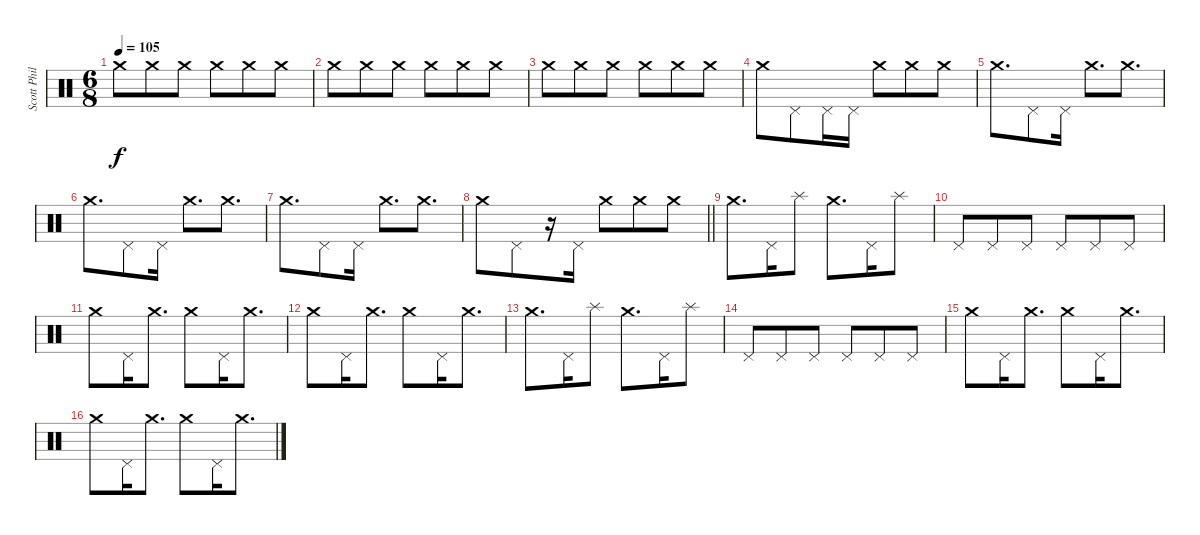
\track ("Scott Phillips (Drums)" "Scott Phil") {instrument percussion}
\staff {score}
\articulation defaults
\ts (6 8)
\tempo 105
\clef neutral
\ks c "Crash medium (hit)".8{dy f} "Crash medium (hit)".8 "Crash medium (hit)".8 "Crash medium (hit)".8 "Crash medium (hit)".8 "Crash medium (hit)".8
|
"Crash medium (hit)".8 "Crash medium (hit)".8 "Crash medium (hit)".8 "Crash medium (hit)".8 "Crash medium (hit)".8 "Crash medium (hit)".8 |
"Crash medium (hit)".8 "Crash medium (hit)".8 "Crash medium (hit)".8 "Crash medium (hit)".8 "Crash medium (hit)".8 "Crash medium (hit)".8 |
"Crash medium (hit)".8 "Pedal Hi-Hat (hit)".8 "Pedal Hi-Hat (hit)".16 "Pedal Hi-Hat (hit)".16 "Crash medium (hit)".8 "Crash medium (hit)".8 "Crash medium (hit)".8 |
"Crash medium (hit)".8{d} "Pedal Hi-Hat (hit)".8 "Pedal Hi-Hat (hit)".16 "Crash medium (hit)".8{d} "Crash medium (hit)".8{d} |
"Crash medium (hit)".8{d} "Pedal Hi-Hat (hit)".8 "Pedal Hi-Hat (hit)".16 "Crash medium (hit)".8{d} "Crash medium (hit)".8{d} |
"Crash medium (hit)".8{d} "Pedal Hi-Hat (hit)".8 "Pedal Hi-Hat (hit)".16 "Crash medium (hit)".8{d} "Crash medium (hit)".8{d} |
\barLineRight lightlight "Crash medium (hit)".8 "Pedal Hi-Hat (hit)".8
r.16 "Pedal Hi-Hat (hit)".16 "Crash medium (hit)".8 "Crash medium (hit)".8 "Crash medium (hit)".8 |
"Crash medium (hit)".8{d} "Pedal Hi-Hat (hit)".16 "Splash (hit)".8 "Crash medium (hit)".8{d} "Pedal Hi-Hat (hit)".16 "Splash (hit)".8 |
"Pedal Hi-Hat (hit)".8 "Pedal Hi-Hat (hit)".8 "Pedal Hi-Hat (hit)".8 "Pedal Hi-Hat (hit)".8 "Pedal Hi-Hat (hit)".8 "Pedal Hi-Hat (hit)".8 |
"Crash medium (hit)".8 "Pedal Hi-Hat (hit)".16 "Crash medium (hit)".8{d} "Crash medium (hit)".8 "Pedal Hi-Hat (hit)".16 "Crash medium (hit)".8{d} |
"Crash medium (hit)".8 "Pedal Hi-Hat (hit)".16 "Crash medium (hit)".8{d} "Crash medium (hit)".8 "Pedal Hi-Hat (hit)".16 "Crash medium (hit)".8{d} |
"Crash medium (hit)".8{d} "Pedal Hi-Hat (hit)".16 "Splash (hit)".8 "Crash medium (hit)".8{d} "Pedal Hi-Hat (hit)".16 "Splash (hit)".8 |
"Pedal Hi-Hat (hit)".8 "Pedal Hi-Hat (hit)".8 "Pedal Hi-Hat (hit)".8 "Pedal Hi-Hat (hit)".8 "Pedal Hi-Hat (hit)".8 "Pedal Hi-Hat (hit)".8 |
"Crash medium (hit)".8 "Pedal Hi-Hat (hit)".16 "Crash medium (hit)".8{d} "Crash medium (hit)".8 "Pedal Hi-Hat (hit)".16 "Crash medium (hit)".8{d} |
"Crash medium (hit)".8 "Pedal Hi-Hat (hit)".16 "Crash medium (hit)".8{d} "Crash medium (hit)".8 "Pedal Hi-Hat (hit)".16 "Crash medium (hit)".8{d}
